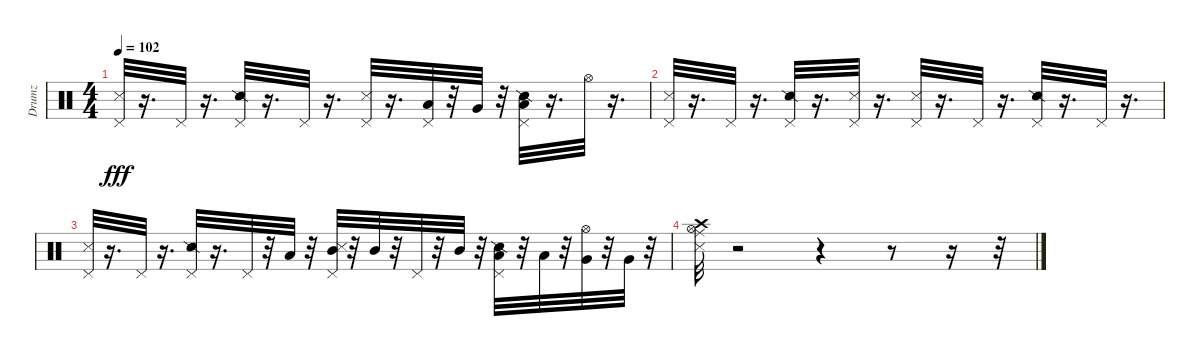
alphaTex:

\track ("Drumz" "Drumz") {instrument percussion}
\staff {score}
\articulation defaults
\ts (4 4)
\tempo 102
\clef neutral
\ks c
("Metronome (hit)" "Pedal Hi-Hat (hit)").32{dy fff} r.16{d} "Pedal Hi-Hat (hit)".32 r.16{d} ("Pedal Hi-Hat (hit)" "Snare (side stick) 2").32 r.16{d} "Pedal Hi-Hat (hit)".32 r.16{d} ("Metronome (hit)" "Pedal Hi-Hat (hit)").32 r.16{d} ("Pedal Hi-Hat (hit)" "Low Floor Tom (hit)").32 r.32 "Very Low Tom (hit)".32 r.32 ("Snare (side stick) 2" "Pedal Hi-Hat (hit)" "Low Floor Tom (hit)").32 r.16{d} "Hi-Hat (open)".32 r.16{d} |
("Metronome (hit)" "Pedal Hi-Hat (hit)").32 r.16{d} "Pedal Hi-Hat (hit)".32 r.16{d} ("Pedal Hi-Hat (hit)" "Snare (side stick) 2").32 r.16{d} ("Pedal Hi-Hat (hit)" "Metronome (hit)").32 r.16{d} ("Metronome (hit)" "Pedal Hi-Hat (hit)").32 r.16{d} "Pedal Hi-Hat (hit)".32 r.16{d} ("Pedal Hi-Hat (hit)" "Snare (side stick) 2").32 r.16{d} "Pedal Hi-Hat (hit)".32 r.16{d} |
("Pedal Hi-Hat (hit)" "Metronome (hit)").32 r.16{d} "Pedal Hi-Hat (hit)".32 r.16{d} ("Snare (side stick) 2" "Pedal Hi-Hat (hit)").32 r.16{d} "Pedal Hi-Hat (hit)".32 r.32 "Low Floor Tom (hit)".32 r.32 ("Metronome (hit)" "Pedal Hi-Hat (hit)" "Mid Tom (hit)").32 r.32 "Mid Tom (hit)".32 r.32 "Pedal Hi-Hat (hit)".32 r.32 "Mid Tom (hit)".32 r.32 ("Pedal Hi-Hat (hit)" "Snare (side stick) 2" "Low Tom (hit)").32 r.32 "Low Tom (hit)".32 r.32 ("Very Low Tom (hit)" "Hi-Hat (open)").32 r.32 "Very Low Tom (hit)".32 r.32 |
("Ride (middle)" "Crash high (hit)" "Hi-Hat (open)" "Metronome (hit)").32 r.2 r.4 r.8 r.16 r.32
